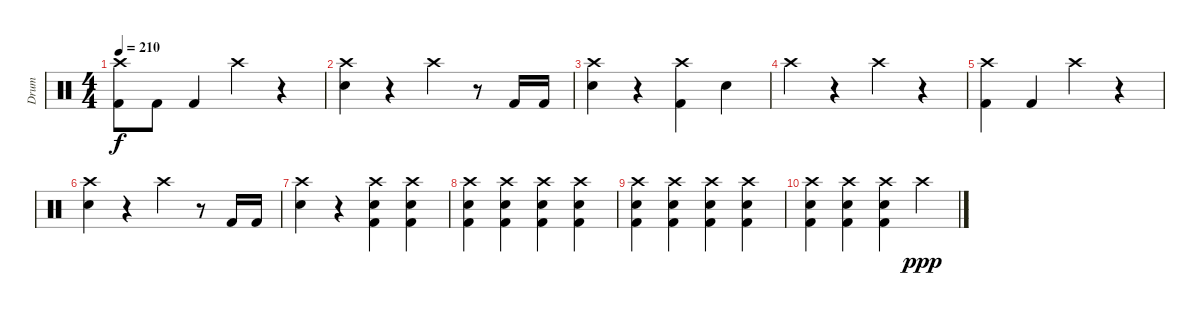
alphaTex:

\track ("Drum" "Drum") {instrument percussion}
\staff {score}
\articulation defaults
\ts (4 4)
\tempo 210
\clef neutral
\ks c
("Crash high (hit)" "Kick (hit) 2").8{dy f} "Kick (hit) 2".8 "Kick (hit) 2".4 "Crash high (hit)".4 r.4 |
("Crash high (hit)" "Snare (hit) 2").4 r.4 "Crash high (hit)".4 r.8 "Kick (hit) 2".16 "Kick (hit) 2".16 |
("Crash high (hit)" "Snare (hit) 2").4 r.4 ("Crash high (hit)" "Kick (hit) 2").4 "Snare (hit) 2".4 |
"Crash high (hit)".4 r.4 "Crash high (hit)".4 r.4 |
("Crash high (hit)" "Kick (hit) 2").4 "Kick (hit) 2".4 "Crash high (hit)".4 r.4 |
("Crash high (hit)" "Snare (hit) 2").4 r.4 "Crash high (hit)".4 r.8 "Kick (hit) 2".16 "Kick (hit) 2".16 |
("Crash high (hit)" "Snare (hit) 2").4 r.4 ("Crash high (hit)" "Snare (hit) 2" "Kick (hit) 2").4 ("Crash high (hit)" "Snare (hit) 2" "Kick (hit) 2").4 |
("Crash high (hit)" "Snare (hit) 2" "Kick (hit) 2").4 ("Crash high (hit)" "Snare (hit) 2" "Kick (hit) 2").4 ("Crash high (hit)" "Snare (hit) 2" "Kick (hit) 2").4 ("Crash high (hit)" "Snare (hit) 2" "Kick (hit) 2").4 |
("Crash high (hit)" "Snare (hit) 2" "Kick (hit) 2").4 ("Crash high (hit)" "Snare (hit) 2" "Kick (hit) 2").4 ("Crash high (hit)" "Snare (hit) 2" "Kick (hit) 2").4 ("Crash high (hit)" "Snare (hit) 2" "Kick (hit) 2").4 |
("Crash high (hit)" "Snare (hit) 2" "Kick (hit) 2").4 ("Crash high (hit)" "Snare (hit) 2" "Kick (hit) 2").4 ("Crash high (hit)" "Snare (hit) 2" "Kick (hit) 2").4 "Crash high (hit)".4{dy ppp}
